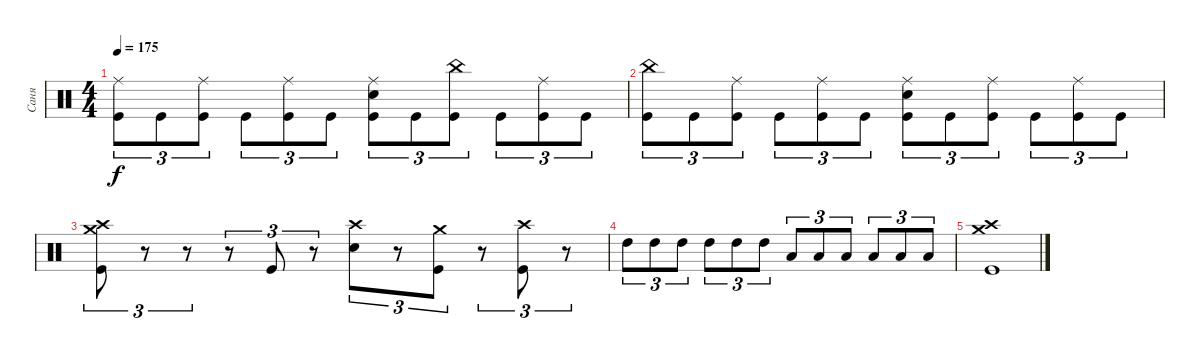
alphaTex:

\track ("Саня" "Саня") {instrument percussion}
\staff {score}
\articulation defaults
\ts (4 4)
\tempo 175
\clef neutral
\ks c
("Ride (middle)" "Kick (hit)").8{tu (3 2) dy f} "Kick (hit)".8{tu (3 2)} ("Ride (middle)" "Kick (hit)").8{tu (3 2)} "Kick (hit)".8{tu (3 2)} ("Ride (middle)" "Kick (hit)").8{tu (3 2)} "Kick (hit)".8{tu (3 2)} ("Ride (middle)" "Electric Snare (hit)" "Kick (hit)").8{tu (3 2)} "Kick (hit)".8{tu (3 2)} ("China (hit)" "Kick (hit)").8{tu (3 2)} "Kick (hit)".8{tu (3 2)} ("Ride (middle)" "Kick (hit)").8{tu (3 2)} "Kick (hit)".8{tu (3 2)} |
("China (hit)" "Kick (hit)").8{tu (3 2)} "Kick (hit)".8{tu (3 2)} ("Ride (middle)" "Kick (hit)").8{tu (3 2)} "Kick (hit)".8{tu (3 2)} ("Ride (middle)" "Kick (hit)").8{tu (3 2)} "Kick (hit)".8{tu (3 2)} ("Ride (middle)" "Electric Snare (hit)" "Kick (hit)").8{tu (3 2)} "Kick (hit)".8{tu (3 2)} ("Ride (middle)" "Kick (hit)").8{tu (3 2)} "Kick (hit)".8{tu (3 2)} ("Ride (middle)" "Kick (hit)").8{tu (3 2)} "Kick (hit)".8{tu (3 2)} |
("Crash medium (hit)" "Crash high (hit)" "Kick (hit)").8{tu (3 2)} r.8{tu (3 2)} r.8{tu (3 2)} r.8{tu (3 2)} "Kick (hit)".8{tu (3 2)} r.8{tu (3 2)} ("Crash high (hit)" "Electric Snare (hit)").8{tu (3 2)} r.8{tu (3 2)} ("Crash medium (hit)" "Kick (hit)").8{tu (3 2)} r.8{tu (3 2)} ("Crash high (hit)" "Kick (hit)").8{tu (3 2)} r.8{tu (3 2)} |
"High Tom (hit)".8{tu (3 2)} "High Tom (hit)".8{tu (3 2)} "High Tom (hit)".8{tu (3 2)} "High Tom (hit)".8{tu (3 2)} "High Tom (hit)".8{tu (3 2)} "High Tom (hit)".8{tu (3 2)} "Low Tom (hit)".8{tu (3 2)} "Low Tom (hit)".8{tu (3 2)} "Low Tom (hit)".8{tu (3 2)} "Low Tom (hit)".8{tu (3 2)} "Low Tom (hit)".8{tu (3 2)} "Low Tom (hit)".8{tu (3 2)} |
("Crash medium (hit)" "Crash high (hit)" "Kick (hit)").1
